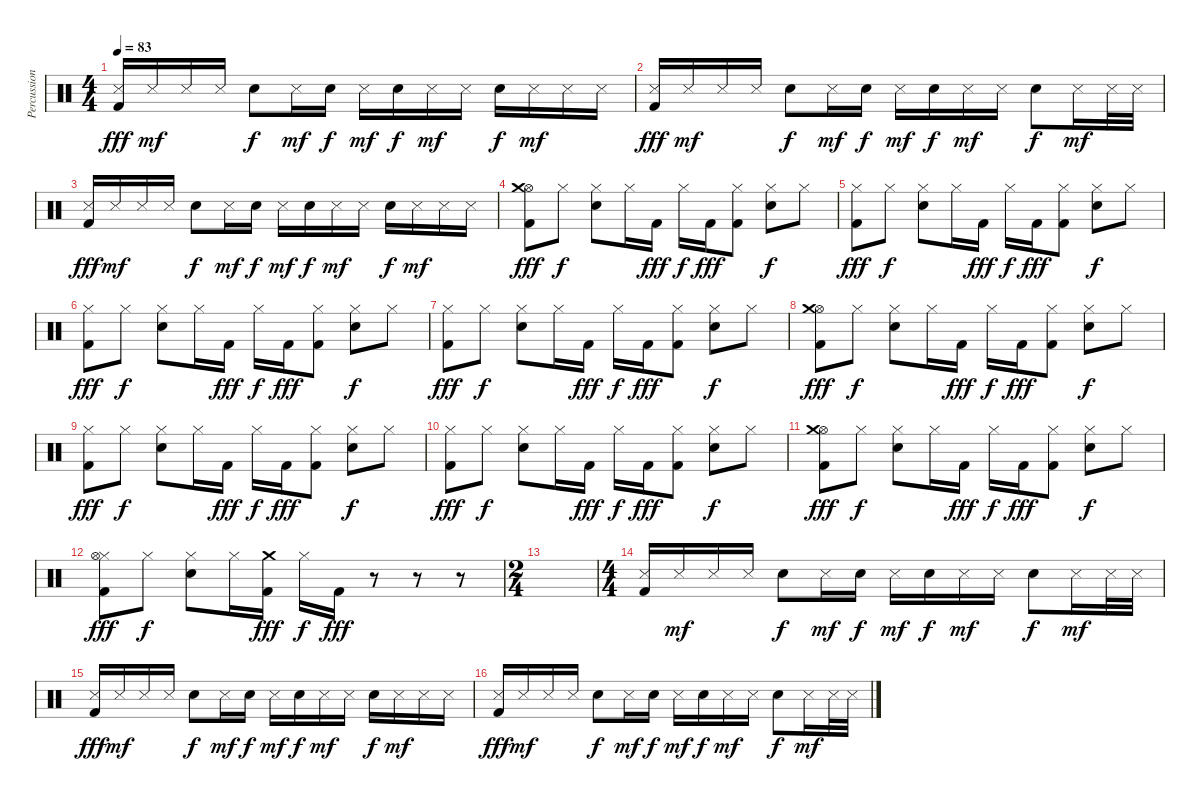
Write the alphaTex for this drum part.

\track ("Percussion" "Percussion") {instrument percussion}
\staff {score}
\articulation defaults
\ts (4 4)
\tempo 83
\clef neutral
\ks c
("Snare (side stick) 3" "Kick (hit) 2").16{dy fff} "Snare (side stick) 3".16{dy mf} "Snare (side stick) 3".16 "Snare (side stick) 3".16 "Electric Snare (hit)".8{dy f} "Snare (side stick) 3".16{dy mf} "Electric Snare (hit)".16{dy f} "Snare (side stick) 3".16{dy mf} "Electric Snare (hit)".16{dy f} "Snare (side stick) 3".16{dy mf} "Snare (side stick) 3".16 "Electric Snare (hit)".16{dy f} "Snare (side stick) 3".16{dy mf} "Snare (side stick) 3".16 "Snare (side stick) 3".16 |
("Snare (side stick) 3" "Kick (hit) 2").16{dy fff} "Snare (side stick) 3".16{dy mf} "Snare (side stick) 3".16 "Snare (side stick) 3".16 "Electric Snare (hit)".8{dy f} "Snare (side stick) 3".16{dy mf} "Electric Snare (hit)".16{dy f} "Snare (side stick) 3".16{dy mf} "Electric Snare (hit)".16{dy f} "Snare (side stick) 3".16{dy mf} "Snare (side stick) 3".16 "Electric Snare (hit)".8{dy f} "Snare (side stick) 3".16{dy mf} "Snare (side stick) 3".32 "Snare (side stick) 3".32 |
("Snare (side stick) 3" "Kick (hit) 2").16{dy fff} "Snare (side stick) 3".16{dy mf} "Snare (side stick) 3".16 "Snare (side stick) 3".16 "Electric Snare (hit)".8{dy f} "Snare (side stick) 3".16{dy mf} "Electric Snare (hit)".16{dy f} "Snare (side stick) 3".16{dy mf} "Electric Snare (hit)".16{dy f} "Snare (side stick) 3".16{dy mf} "Snare (side stick) 3".16 "Electric Snare (hit)".16{dy f} "Snare (side stick) 3".16{dy mf} "Snare (side stick) 3".16 "Snare (side stick) 3".16 |
("Kick (hit) 2" "Hi-Hat (open)" "Crash medium (hit)").8{dy fff} "Hi-Hat (closed)".8{dy f} ("Electric Snare (hit)" "Hi-Hat (closed)").8 "Hi-Hat (closed)".16 "Kick (hit) 2".16{dy fff} "Hi-Hat (closed)".16{dy f} "Kick (hit) 2".16{dy fff} ("Kick (hit) 2" "Hi-Hat (closed)").8 ("Electric Snare (hit)" "Hi-Hat (closed)").8{dy f} "Hi-Hat (closed)".8 |
("Kick (hit) 2" "Hi-Hat (closed)").8{dy fff} "Hi-Hat (closed)".8{dy f} ("Electric Snare (hit)" "Hi-Hat (closed)").8 "Hi-Hat (closed)".16 "Kick (hit) 2".16{dy fff} "Hi-Hat (closed)".16{dy f} "Kick (hit) 2".16{dy fff} ("Kick (hit) 2" "Hi-Hat (closed)").8 ("Electric Snare (hit)" "Hi-Hat (closed)").8{dy f} "Hi-Hat (closed)".8 |
("Kick (hit) 2" "Hi-Hat (closed)").8{dy fff} "Hi-Hat (closed)".8{dy f} ("Electric Snare (hit)" "Hi-Hat (closed)").8 "Hi-Hat (closed)".16 "Kick (hit) 2".16{dy fff} "Hi-Hat (closed)".16{dy f} "Kick (hit) 2".16{dy fff} ("Kick (hit) 2" "Hi-Hat (closed)").8 ("Electric Snare (hit)" "Hi-Hat (closed)").8{dy f} "Hi-Hat (closed)".8 |
("Kick (hit) 2" "Hi-Hat (closed)").8{dy fff} "Hi-Hat (closed)".8{dy f} ("Electric Snare (hit)" "Hi-Hat (closed)").8 "Hi-Hat (closed)".16 "Kick (hit) 2".16{dy fff} "Hi-Hat (closed)".16{dy f} "Kick (hit) 2".16{dy fff} ("Kick (hit) 2" "Hi-Hat (closed)").8 ("Electric Snare (hit)" "Hi-Hat (closed)").8{dy f} "Hi-Hat (closed)".8 |
("Kick (hit) 2" "Hi-Hat (open)" "Crash medium (hit)").8{dy fff} "Hi-Hat (closed)".8{dy f} ("Electric Snare (hit)" "Hi-Hat (closed)").8 "Hi-Hat (closed)".16 "Kick (hit) 2".16{dy fff} "Hi-Hat (closed)".16{dy f} "Kick (hit) 2".16{dy fff} ("Kick (hit) 2" "Hi-Hat (closed)").8 ("Electric Snare (hit)" "Hi-Hat (closed)").8{dy f} "Hi-Hat (closed)".8 |
("Kick (hit) 2" "Hi-Hat (closed)").8{dy fff} "Hi-Hat (closed)".8{dy f} ("Electric Snare (hit)" "Hi-Hat (closed)").8 "Hi-Hat (closed)".16 "Kick (hit) 2".16{dy fff} "Hi-Hat (closed)".16{dy f} "Kick (hit) 2".16{dy fff} ("Kick (hit) 2" "Hi-Hat (closed)").8 ("Electric Snare (hit)" "Hi-Hat (closed)").8{dy f} "Hi-Hat (closed)".8 |
("Kick (hit) 2" "Hi-Hat (closed)").8{dy fff} "Hi-Hat (closed)".8{dy f} ("Electric Snare (hit)" "Hi-Hat (closed)").8 "Hi-Hat (closed)".16 "Kick (hit) 2".16{dy fff} "Hi-Hat (closed)".16{dy f} "Kick (hit) 2".16{dy fff} ("Kick (hit) 2" "Hi-Hat (closed)").8 ("Electric Snare (hit)" "Hi-Hat (closed)").8{dy f} "Hi-Hat (closed)".8 |
("Kick (hit) 2" "Hi-Hat (open)" "Crash medium (hit)").8{dy fff} "Hi-Hat (closed)".8{dy f} ("Electric Snare (hit)" "Hi-Hat (closed)").8 "Hi-Hat (closed)".16 "Kick (hit) 2".16{dy fff} "Hi-Hat (closed)".16{dy f} "Kick (hit) 2".16{dy fff} ("Kick (hit) 2" "Hi-Hat (closed)").8 ("Electric Snare (hit)" "Hi-Hat (closed)").8{dy f} "Hi-Hat (closed)".8 |
("Kick (hit) 2" "Hi-Hat (closed)" "Hi-Hat (open)").8{dy fff} "Hi-Hat (closed)".8{dy f} ("Electric Snare (hit)" "Hi-Hat (closed)").8 "Hi-Hat (closed)".16 ("Kick (hit) 2" "Crash medium (hit)").16{dy fff} "Hi-Hat (closed)".16{dy f} "Kick (hit) 2".16{dy fff} r.8 r.8 r.8 |
\ts (2 4)
|
\ts (4 4)
("Snare (side stick) 3" "Kick (hit) 2").16 "Snare (side stick) 3".16{dy mf} "Snare (side stick) 3".16 "Snare (side stick) 3".16 "Electric Snare (hit)".8{dy f} "Snare (side stick) 3".16{dy mf} "Electric Snare (hit)".16{dy f} "Snare (side stick) 3".16{dy mf} "Electric Snare (hit)".16{dy f} "Snare (side stick) 3".16{dy mf} "Snare (side stick) 3".16 "Electric Snare (hit)".8{dy f} "Snare (side stick) 3".16{dy mf} "Snare (side stick) 3".32 "Snare (side stick) 3".32 |
("Snare (side stick) 3" "Kick (hit) 2").16{dy fff} "Snare (side stick) 3".16{dy mf} "Snare (side stick) 3".16 "Snare (side stick) 3".16 "Electric Snare (hit)".8{dy f} "Snare (side stick) 3".16{dy mf} "Electric Snare (hit)".16{dy f} "Snare (side stick) 3".16{dy mf} "Electric Snare (hit)".16{dy f} "Snare (side stick) 3".16{dy mf} "Snare (side stick) 3".16 "Electric Snare (hit)".16{dy f} "Snare (side stick) 3".16{dy mf} "Snare (side stick) 3".16 "Snare (side stick) 3".16 |
("Snare (side stick) 3" "Kick (hit) 2").16{dy fff} "Snare (side stick) 3".16{dy mf} "Snare (side stick) 3".16 "Snare (side stick) 3".16 "Electric Snare (hit)".8{dy f} "Snare (side stick) 3".16{dy mf} "Electric Snare (hit)".16{dy f} "Snare (side stick) 3".16{dy mf} "Electric Snare (hit)".16{dy f} "Snare (side stick) 3".16{dy mf} "Snare (side stick) 3".16 "Electric Snare (hit)".8{dy f} "Snare (side stick) 3".16{dy mf} "Snare (side stick) 3".32 "Snare (side stick) 3".32
